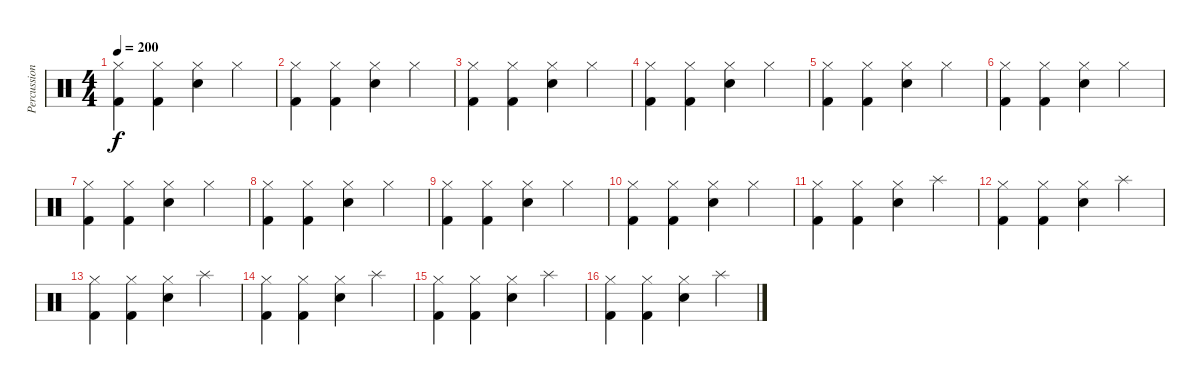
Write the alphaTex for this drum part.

\track ("Percussion" "Percussion") {instrument percussion}
\staff {score}
\articulation defaults
\ts (4 4)
\tempo 200
\clef neutral
\ks c
("Kick (hit) 2" "Hi-Hat (closed)").4{dy f} ("Kick (hit) 2" "Hi-Hat (closed)").4 ("Snare (hit) 2" "Hi-Hat (closed)").4 "Hi-Hat (closed)".4 |
("Kick (hit) 2" "Hi-Hat (closed)").4 ("Kick (hit) 2" "Hi-Hat (closed)").4 ("Snare (hit) 2" "Hi-Hat (closed)").4 "Hi-Hat (closed)".4 |
("Kick (hit) 2" "Hi-Hat (closed)").4 ("Kick (hit) 2" "Hi-Hat (closed)").4 ("Snare (hit) 2" "Hi-Hat (closed)").4 "Hi-Hat (closed)".4 |
("Kick (hit) 2" "Hi-Hat (closed)").4 ("Kick (hit) 2" "Hi-Hat (closed)").4 ("Snare (hit) 2" "Hi-Hat (closed)").4 "Hi-Hat (closed)".4 |
("Kick (hit) 2" "Hi-Hat (closed)").4 ("Kick (hit) 2" "Hi-Hat (closed)").4 ("Snare (hit) 2" "Hi-Hat (closed)").4 "Hi-Hat (closed)".4 |
("Kick (hit) 2" "Hi-Hat (closed)").4 ("Kick (hit) 2" "Hi-Hat (closed)").4 ("Snare (hit) 2" "Hi-Hat (closed)").4 "Hi-Hat (closed)".4 |
("Kick (hit) 2" "Hi-Hat (closed)").4 ("Kick (hit) 2" "Hi-Hat (closed)").4 ("Snare (hit) 2" "Hi-Hat (closed)").4 "Hi-Hat (closed)".4 |
("Kick (hit) 2" "Hi-Hat (closed)").4 ("Kick (hit) 2" "Hi-Hat (closed)").4 ("Snare (hit) 2" "Hi-Hat (closed)").4 "Hi-Hat (closed)".4 |
("Kick (hit) 2" "Hi-Hat (closed)").4 ("Kick (hit) 2" "Hi-Hat (closed)").4 ("Snare (hit) 2" "Hi-Hat (closed)").4 "Hi-Hat (closed)".4 |
("Kick (hit) 2" "Hi-Hat (closed)").4 ("Kick (hit) 2" "Hi-Hat (closed)").4 ("Snare (hit) 2" "Hi-Hat (closed)").4 "Hi-Hat (closed)".4 |
("Kick (hit) 2" "Hi-Hat (closed)").4 ("Kick (hit) 2" "Hi-Hat (closed)").4 ("Snare (hit) 2" "Hi-Hat (closed)").4 "Splash (hit)".4 |
("Kick (hit) 2" "Hi-Hat (closed)").4 ("Kick (hit) 2" "Hi-Hat (closed)").4 ("Snare (hit) 2" "Hi-Hat (closed)").4 "Splash (hit)".4 |
("Kick (hit) 2" "Hi-Hat (closed)").4 ("Kick (hit) 2" "Hi-Hat (closed)").4 ("Snare (hit) 2" "Hi-Hat (closed)").4 "Splash (hit)".4 |
("Kick (hit) 2" "Hi-Hat (closed)").4 ("Kick (hit) 2" "Hi-Hat (closed)").4 ("Snare (hit) 2" "Hi-Hat (closed)").4 "Splash (hit)".4 |
("Kick (hit) 2" "Hi-Hat (closed)").4 ("Kick (hit) 2" "Hi-Hat (closed)").4 ("Snare (hit) 2" "Hi-Hat (closed)").4 "Splash (hit)".4 |
("Kick (hit) 2" "Hi-Hat (closed)").4 ("Kick (hit) 2" "Hi-Hat (closed)").4 ("Snare (hit) 2" "Hi-Hat (closed)").4 "Splash (hit)".4
